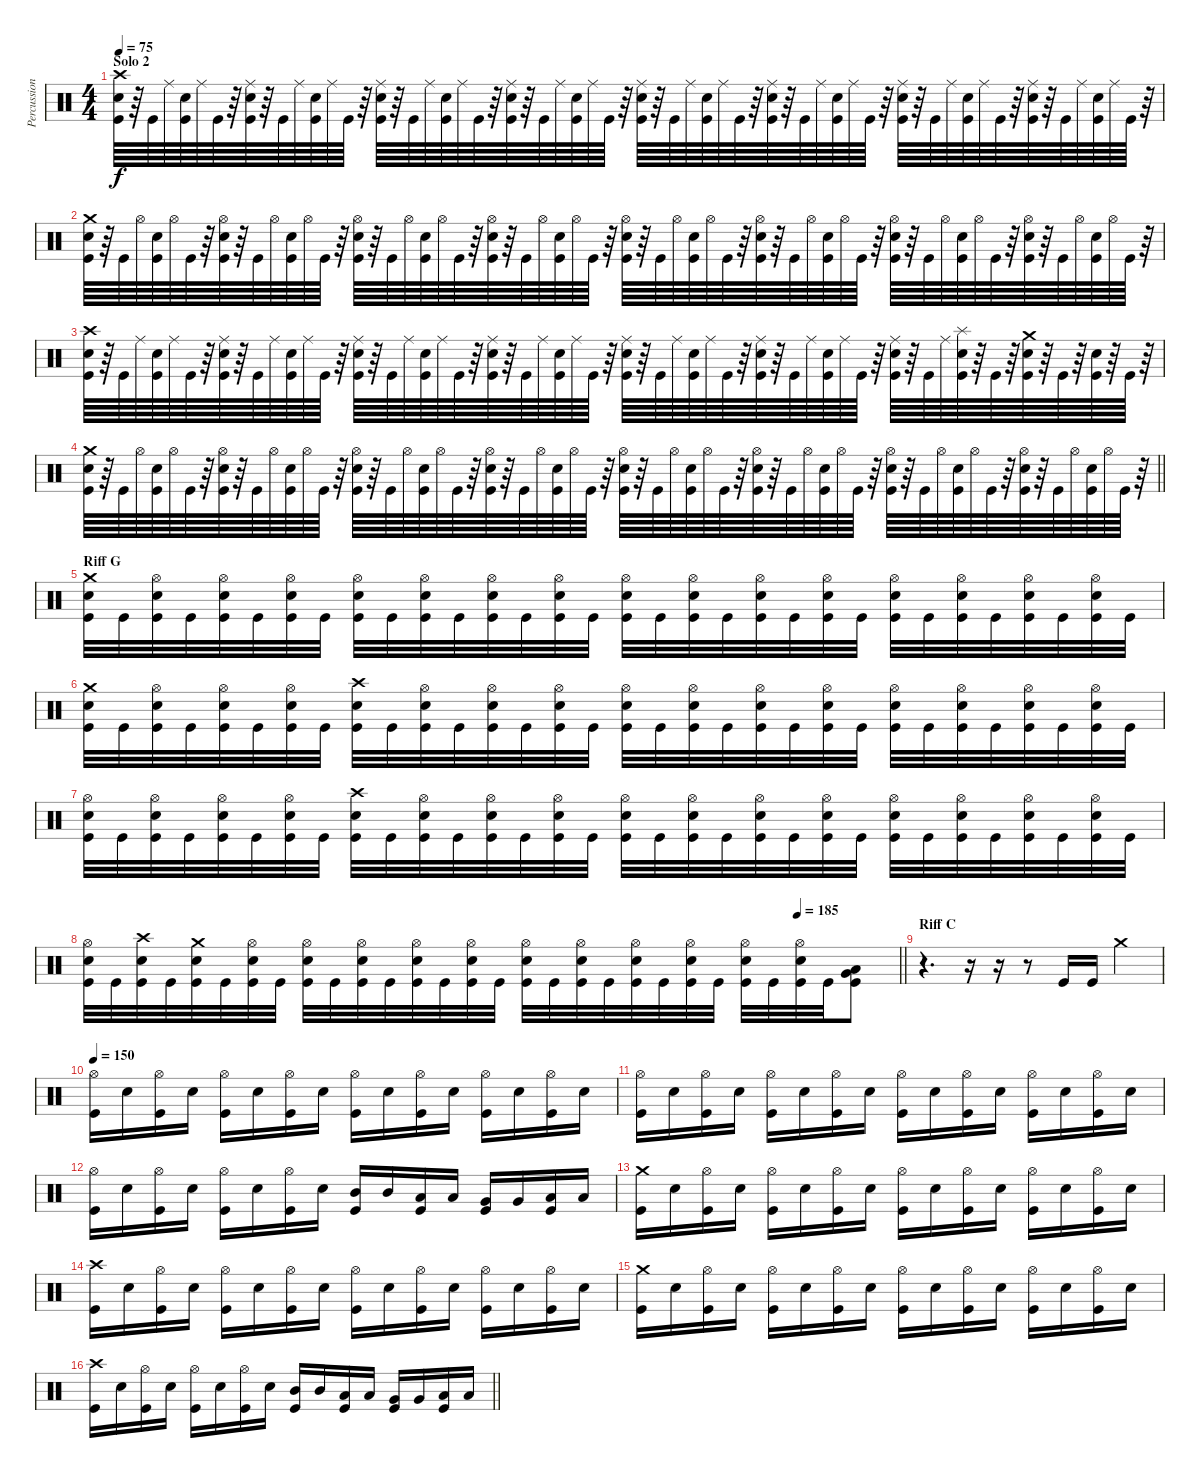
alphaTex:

\track ("Percussion" "Percussion") {instrument percussion}
\staff {score}
\articulation defaults
\ts (4 4)
\section ("" "Solo 2")
\tempo 75
\clef neutral
\ks c
("Kick (hit)" "Snare (hit) 2" "Crash high (hit)").64{dy f} r.64 "Kick (hit)".64 "Ride (middle)".64 ("Kick (hit)" "Snare (hit) 2").64 "Ride (middle)".64 "Kick (hit)".64 r.64 ("Kick (hit)" "Snare (hit) 2" "Ride (middle)").64 r.64 "Kick (hit)".64 "Ride (middle)".64 ("Kick (hit)" "Snare (hit) 2").64 "Ride (middle)".64 "Kick (hit)".64 r.64 ("Kick (hit)" "Snare (hit) 2" "Ride (middle)").64 r.64 "Kick (hit)".64 "Ride (middle)".64 ("Kick (hit)" "Snare (hit) 2").64 "Ride (middle)".64 "Kick (hit)".64 r.64 ("Kick (hit)" "Snare (hit) 2" "Ride (middle)").64 r.64 "Kick (hit)".64 "Ride (middle)".64 ("Kick (hit)" "Snare (hit) 2").64 "Ride (middle)".64 "Kick (hit)".64 r.64 ("Kick (hit)" "Snare (hit) 2" "Ride (middle)").64 r.64 "Kick (hit)".64 "Ride (middle)".64 ("Kick (hit)" "Snare (hit) 2").64 "Ride (middle)".64 "Kick (hit)".64 r.64 ("Kick (hit)" "Snare (hit) 2" "Ride (middle)").64 r.64 "Kick (hit)".64 "Ride (middle)".64 ("Kick (hit)" "Snare (hit) 2").64 "Ride (middle)".64 "Kick (hit)".64 r.64 ("Kick (hit)" "Snare (hit) 2" "Ride (middle)").64 r.64 "Kick (hit)".64 "Ride (middle)".64 ("Kick (hit)" "Snare (hit) 2").64 "Ride (middle)".64 "Kick (hit)".64 r.64 ("Kick (hit)" "Snare (hit) 2" "Ride (middle)").64 r.64 "Kick (hit)".64 "Ride (middle)".64 ("Kick (hit)" "Snare (hit) 2").64 "Ride (middle)".64 "Kick (hit)".64 r.64 |
("Kick (hit)" "Snare (hit) 2" "Crash medium (hit)").64 r.64 "Kick (hit)".64 "Hi-Hat (open)".64 ("Kick (hit)" "Snare (hit) 2").64 "Hi-Hat (open)".64 "Kick (hit)".64 r.64 ("Kick (hit)" "Snare (hit) 2" "Hi-Hat (open)").64 r.64 "Kick (hit)".64 "Hi-Hat (open)".64 ("Kick (hit)" "Snare (hit) 2").64 "Hi-Hat (open)".64 "Kick (hit)".64 r.64 ("Kick (hit)" "Snare (hit) 2" "Hi-Hat (open)").64 r.64 "Kick (hit)".64 "Hi-Hat (open)".64 ("Kick (hit)" "Snare (hit) 2").64 "Hi-Hat (open)".64 "Kick (hit)".64 r.64 ("Kick (hit)" "Snare (hit) 2" "Hi-Hat (open)").64 r.64 "Kick (hit)".64 "Hi-Hat (open)".64 ("Kick (hit)" "Snare (hit) 2").64 "Hi-Hat (open)".64 "Kick (hit)".64 r.64 ("Kick (hit)" "Snare (hit) 2" "Hi-Hat (open)").64 r.64 "Kick (hit)".64 "Hi-Hat (open)".64 ("Kick (hit)" "Snare (hit) 2").64 "Hi-Hat (open)".64 "Kick (hit)".64 r.64 ("Kick (hit)" "Snare (hit) 2" "Hi-Hat (open)").64 r.64 "Kick (hit)".64 "Hi-Hat (open)".64 ("Kick (hit)" "Snare (hit) 2").64 "Hi-Hat (open)".64 "Kick (hit)".64 r.64 ("Kick (hit)" "Snare (hit) 2" "Hi-Hat (open)").64 r.64 "Kick (hit)".64 "Hi-Hat (open)".64 ("Kick (hit)" "Snare (hit) 2").64 "Hi-Hat (open)".64 "Kick (hit)".64 r.64 ("Kick (hit)" "Snare (hit) 2" "Hi-Hat (open)").64 r.64 "Kick (hit)".64 "Hi-Hat (open)".64 ("Kick (hit)" "Snare (hit) 2").64 "Hi-Hat (open)".64 "Kick (hit)".64 r.64 |
("Kick (hit)" "Snare (hit) 2" "Crash high (hit)").64 r.64 "Kick (hit)".64 "Ride (middle)".64 ("Kick (hit)" "Snare (hit) 2").64 "Ride (middle)".64 "Kick (hit)".64 r.64 ("Kick (hit)" "Snare (hit) 2" "Ride (middle)").64 r.64 "Kick (hit)".64 "Ride (middle)".64 ("Kick (hit)" "Snare (hit) 2").64 "Ride (middle)".64 "Kick (hit)".64 r.64 ("Kick (hit)" "Snare (hit) 2" "Ride (middle)").64 r.64 "Kick (hit)".64 "Ride (middle)".64 ("Kick (hit)" "Snare (hit) 2").64 "Ride (middle)".64 "Kick (hit)".64 r.64 ("Kick (hit)" "Snare (hit) 2" "Ride (middle)").64 r.64 "Kick (hit)".64 "Ride (middle)".64 ("Kick (hit)" "Snare (hit) 2").64 "Ride (middle)".64 "Kick (hit)".64 r.64 ("Kick (hit)" "Snare (hit) 2" "Ride (middle)").64 r.64 "Kick (hit)".64 "Ride (middle)".64 ("Kick (hit)" "Snare (hit) 2").64 "Ride (middle)".64 "Kick (hit)".64 r.64 ("Kick (hit)" "Snare (hit) 2" "Ride (middle)").64 r.64 "Kick (hit)".64 "Ride (middle)".64 ("Kick (hit)" "Snare (hit) 2").64 "Ride (middle)".64 "Kick (hit)".64 r.64 ("Kick (hit)" "Snare (hit) 2" "Ride (middle)").64 r.64 "Kick (hit)".64 "Ride (middle)".64 ("Kick (hit)" "Snare (hit) 2" "Splash (hit)").64 r.64 "Kick (hit)".64 r.64 ("Kick (hit)" "Snare (hit) 2" "Crash medium (hit)").64 r.64 "Kick (hit)".64 r.64 ("Kick (hit)" "Snare (hit) 2").64 r.64 "Kick (hit)".64 r.64 |
\barLineRight lightlight
("Kick (hit)" "Snare (hit) 2" "Crash medium (hit)").64 r.64 "Kick (hit)".64 "Hi-Hat (open)".64 ("Kick (hit)" "Snare (hit) 2").64 "Hi-Hat (open)".64 "Kick (hit)".64 r.64 ("Kick (hit)" "Snare (hit) 2" "Hi-Hat (open)").64 r.64 "Kick (hit)".64 "Hi-Hat (open)".64 ("Kick (hit)" "Snare (hit) 2").64 "Hi-Hat (open)".64 "Kick (hit)".64 r.64 ("Kick (hit)" "Snare (hit) 2" "Hi-Hat (open)").64 r.64 "Kick (hit)".64 "Hi-Hat (open)".64 ("Kick (hit)" "Snare (hit) 2").64 "Hi-Hat (open)".64 "Kick (hit)".64 r.64 ("Kick (hit)" "Snare (hit) 2" "Hi-Hat (open)").64 r.64 "Kick (hit)".64 "Hi-Hat (open)".64 ("Kick (hit)" "Snare (hit) 2").64 "Hi-Hat (open)".64 "Kick (hit)".64 r.64 ("Kick (hit)" "Snare (hit) 2" "Hi-Hat (open)").64 r.64 "Kick (hit)".64 "Hi-Hat (open)".64 ("Kick (hit)" "Snare (hit) 2").64 "Hi-Hat (open)".64 "Kick (hit)".64 r.64 ("Kick (hit)" "Snare (hit) 2" "Hi-Hat (open)").64 r.64 "Kick (hit)".64 "Hi-Hat (open)".64 ("Kick (hit)" "Snare (hit) 2").64 "Hi-Hat (open)".64 "Kick (hit)".64 r.64 ("Kick (hit)" "Snare (hit) 2" "Hi-Hat (open)").64 r.64 "Kick (hit)".64 "Hi-Hat (open)".64 ("Kick (hit)" "Snare (hit) 2").64 "Hi-Hat (open)".64 "Kick (hit)".64 r.64 ("Kick (hit)" "Snare (hit) 2" "Hi-Hat (open)").64 r.64 "Kick (hit)".64 "Hi-Hat (open)".64 ("Kick (hit)" "Snare (hit) 2").64 "Hi-Hat (open)".64 "Kick (hit)".64 r.64 |
\section ("" "Riff G")
("Kick (hit)" "Snare (hit) 2" "Crash medium (hit)").32 "Kick (hit)".32 ("Kick (hit)" "Snare (hit) 2" "Hi-Hat (open)").32 "Kick (hit)".32 ("Kick (hit)" "Snare (hit) 2" "Hi-Hat (open)").32 "Kick (hit)".32 ("Kick (hit)" "Snare (hit) 2" "Hi-Hat (open)").32 "Kick (hit)".32 ("Kick (hit)" "Snare (hit) 2" "Hi-Hat (open)").32 "Kick (hit)".32 ("Kick (hit)" "Snare (hit) 2" "Hi-Hat (open)").32 "Kick (hit)".32 ("Kick (hit)" "Snare (hit) 2" "Hi-Hat (open)").32 "Kick (hit)".32 ("Kick (hit)" "Snare (hit) 2" "Hi-Hat (open)").32 "Kick (hit)".32 ("Kick (hit)" "Snare (hit) 2" "Hi-Hat (open)").32 "Kick (hit)".32 ("Kick (hit)" "Snare (hit) 2" "Hi-Hat (open)").32 "Kick (hit)".32 ("Kick (hit)" "Snare (hit) 2" "Hi-Hat (open)").32 "Kick (hit)".32 ("Kick (hit)" "Snare (hit) 2" "Hi-Hat (open)").32 "Kick (hit)".32 ("Kick (hit)" "Snare (hit) 2" "Hi-Hat (open)").32 "Kick (hit)".32 ("Kick (hit)" "Snare (hit) 2" "Hi-Hat (open)").32 "Kick (hit)".32 ("Kick (hit)" "Snare (hit) 2" "Hi-Hat (open)").32 "Kick (hit)".32 ("Kick (hit)" "Snare (hit) 2" "Hi-Hat (open)").32 "Kick (hit)".32 |
("Kick (hit)" "Snare (hit) 2" "Crash medium (hit)").32 "Kick (hit)".32 ("Kick (hit)" "Snare (hit) 2" "Hi-Hat (open)").32 "Kick (hit)".32 ("Kick (hit)" "Snare (hit) 2" "Hi-Hat (open)").32 "Kick (hit)".32 ("Kick (hit)" "Snare (hit) 2" "Hi-Hat (open)").32 "Kick (hit)".32 ("Kick (hit)" "Snare (hit) 2" "Crash high (hit)").32 "Kick (hit)".32 ("Kick (hit)" "Snare (hit) 2" "Hi-Hat (open)").32 "Kick (hit)".32 ("Kick (hit)" "Snare (hit) 2" "Hi-Hat (open)").32 "Kick (hit)".32 ("Kick (hit)" "Snare (hit) 2" "Hi-Hat (open)").32 "Kick (hit)".32 ("Kick (hit)" "Snare (hit) 2" "Hi-Hat (open)").32 "Kick (hit)".32 ("Kick (hit)" "Snare (hit) 2" "Hi-Hat (open)").32 "Kick (hit)".32 ("Kick (hit)" "Snare (hit) 2" "Hi-Hat (open)").32 "Kick (hit)".32 ("Kick (hit)" "Snare (hit) 2" "Hi-Hat (open)").32 "Kick (hit)".32 ("Kick (hit)" "Snare (hit) 2" "Hi-Hat (open)").32 "Kick (hit)".32 ("Kick (hit)" "Snare (hit) 2" "Hi-Hat (open)").32 "Kick (hit)".32 ("Kick (hit)" "Snare (hit) 2" "Hi-Hat (open)").32 "Kick (hit)".32 ("Kick (hit)" "Snare (hit) 2" "Hi-Hat (open)").32 "Kick (hit)".32 |
("Kick (hit)" "Snare (hit) 2" "Hi-Hat (open)").32 "Kick (hit)".32 ("Kick (hit)" "Snare (hit) 2" "Hi-Hat (open)").32 "Kick (hit)".32 ("Kick (hit)" "Snare (hit) 2" "Hi-Hat (open)").32 "Kick (hit)".32 ("Kick (hit)" "Snare (hit) 2" "Hi-Hat (open)").32 "Kick (hit)".32 ("Kick (hit)" "Snare (hit) 2" "Crash high (hit)").32 "Kick (hit)".32 ("Kick (hit)" "Snare (hit) 2" "Hi-Hat (open)").32 "Kick (hit)".32 ("Kick (hit)" "Snare (hit) 2" "Hi-Hat (open)").32 "Kick (hit)".32 ("Kick (hit)" "Snare (hit) 2" "Hi-Hat (open)").32 "Kick (hit)".32 ("Kick (hit)" "Snare (hit) 2" "Hi-Hat (open)").32 "Kick (hit)".32 ("Kick (hit)" "Snare (hit) 2" "Hi-Hat (open)").32 "Kick (hit)".32 ("Kick (hit)" "Snare (hit) 2" "Hi-Hat (open)").32 "Kick (hit)".32 ("Kick (hit)" "Snare (hit) 2" "Hi-Hat (open)").32 "Kick (hit)".32 ("Kick (hit)" "Snare (hit) 2" "Hi-Hat (open)").32 "Kick (hit)".32 ("Kick (hit)" "Snare (hit) 2" "Hi-Hat (open)").32 "Kick (hit)".32 ("Kick (hit)" "Snare (hit) 2" "Hi-Hat (open)").32 "Kick (hit)".32 ("Kick (hit)" "Snare (hit) 2" "Hi-Hat (open)").32 "Kick (hit)".32 |
\tempo (185 0.875)
\barLineRight lightlight
("Kick (hit)" "Snare (hit) 2" "Hi-Hat (open)").32 "Kick (hit)".32 ("Kick (hit)" "Snare (hit) 2" "Crash high (hit)").32 "Kick (hit)".32 ("Kick (hit)" "Snare (hit) 2" "Crash medium (hit)").32 "Kick (hit)".32 ("Kick (hit)" "Snare (hit) 2" "Hi-Hat (open)").32 "Kick (hit)".32 ("Kick (hit)" "Snare (hit) 2" "Hi-Hat (open)").32 "Kick (hit)".32 ("Kick (hit)" "Snare (hit) 2" "Hi-Hat (open)").32 "Kick (hit)".32 ("Kick (hit)" "Snare (hit) 2" "Hi-Hat (open)").32 "Kick (hit)".32 ("Kick (hit)" "Snare (hit) 2" "Hi-Hat (open)").32 "Kick (hit)".32 ("Kick (hit)" "Snare (hit) 2" "Hi-Hat (open)").32 "Kick (hit)".32 ("Kick (hit)" "Snare (hit) 2" "Hi-Hat (open)").32 "Kick (hit)".32 ("Kick (hit)" "Snare (hit) 2" "Hi-Hat (open)").32 "Kick (hit)".32 ("Kick (hit)" "Snare (hit) 2" "Hi-Hat (open)").32 "Kick (hit)".32 ("Kick (hit)" "Snare (hit) 2" "Hi-Hat (open)").32 "Kick (hit)".32 ("Kick (hit)" "Snare (hit) 2" "Hi-Hat (open)").32 "Kick (hit)".32 ("Kick (hit)" "Low Floor Tom (hit)" "Very Low Tom (hit)").8{bd 120} |
\section ("" "Riff C")
r.4{d} r.16 r.16 r.8 "Kick (hit)".16 "Kick (hit)".16 "Crash medium (hit)".4 |
\tempo 150
("Kick (hit)" "Hi-Hat (open)").16 "Snare (hit) 2".16 ("Kick (hit)" "Hi-Hat (open)").16 "Snare (hit) 2".16 ("Kick (hit)" "Hi-Hat (open)").16 "Snare (hit) 2".16 ("Kick (hit)" "Hi-Hat (open)").16 "Snare (hit) 2".16 ("Kick (hit)" "Hi-Hat (open)").16 "Snare (hit) 2".16 ("Kick (hit)" "Hi-Hat (open)").16 "Snare (hit) 2".16 ("Kick (hit)" "Hi-Hat (open)").16 "Snare (hit) 2".16 ("Kick (hit)" "Hi-Hat (open)").16 "Snare (hit) 2".16 |
("Kick (hit)" "Hi-Hat (open)").16 "Snare (hit) 2".16 ("Kick (hit)" "Hi-Hat (open)").16 "Snare (hit) 2".16 ("Kick (hit)" "Hi-Hat (open)").16 "Snare (hit) 2".16 ("Kick (hit)" "Hi-Hat (open)").16 "Snare (hit) 2".16 ("Kick (hit)" "Hi-Hat (open)").16 "Snare (hit) 2".16 ("Kick (hit)" "Hi-Hat (open)").16 "Snare (hit) 2".16 ("Kick (hit)" "Hi-Hat (open)").16 "Snare (hit) 2".16 ("Kick (hit)" "Hi-Hat (open)").16 "Snare (hit) 2".16 |
("Kick (hit)" "Hi-Hat (open)").16 "Snare (hit) 2".16 ("Kick (hit)" "Hi-Hat (open)").16 "Snare (hit) 2".16 ("Kick (hit)" "Hi-Hat (open)").16 "Snare (hit) 2".16 ("Kick (hit)" "Hi-Hat (open)").16 "Snare (hit) 2".16 ("Kick (hit)" "Mid Tom (hit)").16 "Mid Tom (hit)".16 ("Kick (hit)" "Low Tom (hit)").16 "Low Tom (hit)".16 ("Kick (hit)" "Very Low Tom (hit)").16 "Very Low Tom (hit)".16 ("Kick (hit)" "Low Floor Tom (hit)").16 "Low Floor Tom (hit)".16 |
("Kick (hit)" "Crash medium (hit)").16 "Snare (hit) 2".16 ("Kick (hit)" "Hi-Hat (open)").16 "Snare (hit) 2".16 ("Kick (hit)" "Hi-Hat (open)").16 "Snare (hit) 2".16 ("Kick (hit)" "Hi-Hat (open)").16 "Snare (hit) 2".16 ("Kick (hit)" "Hi-Hat (open)").16 "Snare (hit) 2".16 ("Kick (hit)" "Hi-Hat (open)").16 "Snare (hit) 2".16 ("Kick (hit)" "Hi-Hat (open)").16 "Snare (hit) 2".16 ("Kick (hit)" "Hi-Hat (open)").16 "Snare (hit) 2".16 |
("Kick (hit)" "Crash high (hit)").16 "Snare (hit) 2".16 ("Kick (hit)" "Hi-Hat (open)").16 "Snare (hit) 2".16 ("Kick (hit)" "Hi-Hat (open)").16 "Snare (hit) 2".16 ("Kick (hit)" "Hi-Hat (open)").16 "Snare (hit) 2".16 ("Kick (hit)" "Hi-Hat (open)").16 "Snare (hit) 2".16 ("Kick (hit)" "Hi-Hat (open)").16 "Snare (hit) 2".16 ("Kick (hit)" "Hi-Hat (open)").16 "Snare (hit) 2".16 ("Kick (hit)" "Hi-Hat (open)").16 "Snare (hit) 2".16 |
("Kick (hit)" "Crash medium (hit)").16 "Snare (hit) 2".16 ("Kick (hit)" "Hi-Hat (open)").16 "Snare (hit) 2".16 ("Kick (hit)" "Hi-Hat (open)").16 "Snare (hit) 2".16 ("Kick (hit)" "Hi-Hat (open)").16 "Snare (hit) 2".16 ("Kick (hit)" "Hi-Hat (open)").16 "Snare (hit) 2".16 ("Kick (hit)" "Hi-Hat (open)").16 "Snare (hit) 2".16 ("Kick (hit)" "Hi-Hat (open)").16 "Snare (hit) 2".16 ("Kick (hit)" "Hi-Hat (open)").16 "Snare (hit) 2".16 |
\barLineRight lightlight
("Kick (hit)" "Crash high (hit)").16 "Snare (hit) 2".16 ("Kick (hit)" "Hi-Hat (open)").16 "Snare (hit) 2".16 ("Kick (hit)" "Hi-Hat (open)").16 "Snare (hit) 2".16 ("Kick (hit)" "Hi-Hat (open)").16 "Snare (hit) 2".16 ("Kick (hit)" "Mid Tom (hit)").16 "Mid Tom (hit)".16 ("Kick (hit)" "Low Tom (hit)").16 "Low Tom (hit)".16 ("Kick (hit)" "Very Low Tom (hit)").16 "Very Low Tom (hit)".16 ("Kick (hit)" "Low Floor Tom (hit)").16 "Low Floor Tom (hit)".16
